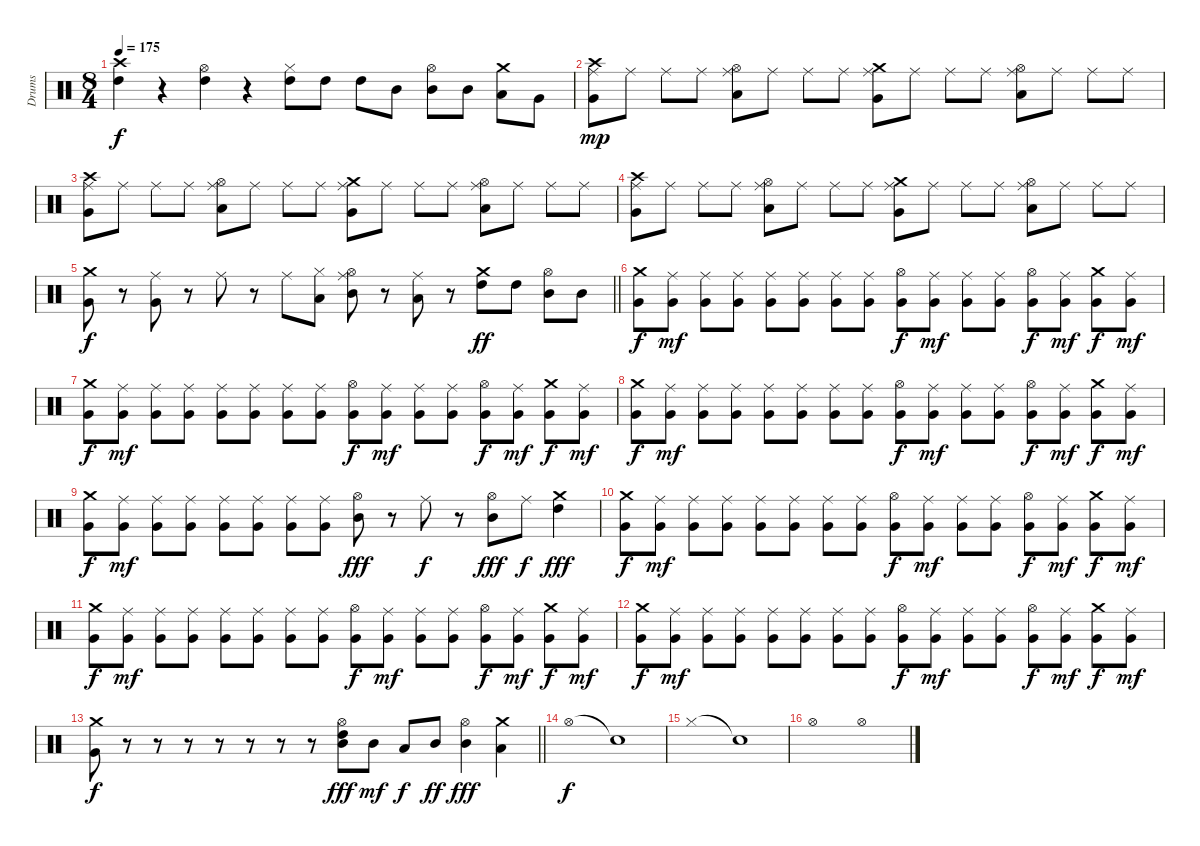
\track ("Drums" "Drums") {instrument percussion}
\staff {score}
\articulation defaults
\ts (8 4)
\tempo 175
\clef neutral
\ks c
("Crash high (hit)" "High Tom (hit)").4{dy f} r.4 ("Hi-Hat (open)" "High Tom (hit)").4 r.4 ("Hi-Hat (closed)" "High Tom (hit)").8 "High Tom (hit)".8 "High Tom (hit)".8 "Mid Tom (hit)".8 ("Hi-Hat (open)" "Mid Tom (hit)").8 "Mid Tom (hit)".8 ("Crash medium (hit)" "Low Tom (hit)").8 "Very Low Tom (hit)".8 |
("Crash high (hit)" "Ride (middle)" "Very Low Tom (hit)").8{dy mp} "Ride (middle)".8 "Ride (middle)".8 "Ride (middle)".8 ("Hi-Hat (open)" "Ride (middle)" "Low Tom (hit)").8 "Ride (middle)".8 "Ride (middle)".8 "Ride (middle)".8 ("Crash medium (hit)" "Ride (middle)" "Very Low Tom (hit)").8 "Ride (middle)".8 "Ride (middle)".8 "Ride (middle)".8 ("Hi-Hat (open)" "Ride (middle)" "Low Tom (hit)").8 "Ride (middle)".8 "Ride (middle)".8 "Ride (middle)".8 |
("Crash high (hit)" "Ride (middle)" "Very Low Tom (hit)").8 "Ride (middle)".8 "Ride (middle)".8 "Ride (middle)".8 ("Hi-Hat (open)" "Ride (middle)" "Low Tom (hit)").8 "Ride (middle)".8 "Ride (middle)".8 "Ride (middle)".8 ("Crash medium (hit)" "Ride (middle)" "Very Low Tom (hit)").8 "Ride (middle)".8 "Ride (middle)".8 "Ride (middle)".8 ("Hi-Hat (open)" "Ride (middle)" "Low Tom (hit)").8 "Ride (middle)".8 "Ride (middle)".8 "Ride (middle)".8 |
("Crash high (hit)" "Ride (middle)" "Very Low Tom (hit)").8 "Ride (middle)".8 "Ride (middle)".8 "Ride (middle)".8 ("Hi-Hat (open)" "Ride (middle)" "Low Tom (hit)").8 "Ride (middle)".8 "Ride (middle)".8 "Ride (middle)".8 ("Crash medium (hit)" "Ride (middle)" "Very Low Tom (hit)").8 "Ride (middle)".8 "Ride (middle)".8 "Ride (middle)".8 ("Hi-Hat (open)" "Ride (middle)" "Low Tom (hit)").8 "Ride (middle)".8 "Ride (middle)".8 "Ride (middle)".8 |
\barLineRight lightlight
("Crash medium (hit)" "Very Low Tom (hit)").8{dy f} r.8 ("Ride (middle)" "Very Low Tom (hit)").8 r.8 "Ride (middle)".8 r.8 "Ride (middle)".8 ("Hi-Hat (closed)" "Low Tom (hit)").8 ("Hi-Hat (open)" "Ride (middle)" "Mid Tom (hit)").8 r.8 ("Ride (middle)" "Low Tom (hit)").8 r.8 ("Crash medium (hit)" "High Tom (hit)").8{dy ff} "High Tom (hit)".8 ("Hi-Hat (open)" "Mid Tom (hit)").8 "Mid Tom (hit)".8 |
\section ("" "")
("Crash medium (hit)" "Very Low Tom (hit)").8{dy f} ("Ride (middle)" "Very Low Tom (hit)").8{dy mf} ("Ride (middle)" "Very Low Tom (hit)").8 ("Ride (middle)" "Very Low Tom (hit)").8 ("Ride (middle)" "Very Low Tom (hit)").8 ("Ride (middle)" "Very Low Tom (hit)").8 ("Ride (middle)" "Very Low Tom (hit)").8 ("Ride (middle)" "Very Low Tom (hit)").8 ("Hi-Hat (open)" "Very Low Tom (hit)").8{dy f} ("Ride (middle)" "Very Low Tom (hit)").8{dy mf} ("Ride (middle)" "Very Low Tom (hit)").8 ("Ride (middle)" "Very Low Tom (hit)").8 ("Hi-Hat (open)" "Very Low Tom (hit)").8{dy f} ("Ride (middle)" "Very Low Tom (hit)").8{dy mf} ("Crash medium (hit)" "Very Low Tom (hit)").8{dy f} ("Ride (middle)" "Very Low Tom (hit)").8{dy mf} |
("Crash medium (hit)" "Very Low Tom (hit)").8{dy f} ("Ride (middle)" "Very Low Tom (hit)").8{dy mf} ("Ride (middle)" "Very Low Tom (hit)").8 ("Ride (middle)" "Very Low Tom (hit)").8 ("Ride (middle)" "Very Low Tom (hit)").8 ("Ride (middle)" "Very Low Tom (hit)").8 ("Ride (middle)" "Very Low Tom (hit)").8 ("Ride (middle)" "Very Low Tom (hit)").8 ("Hi-Hat (open)" "Very Low Tom (hit)").8{dy f} ("Ride (middle)" "Very Low Tom (hit)").8{dy mf} ("Ride (middle)" "Very Low Tom (hit)").8 ("Ride (middle)" "Very Low Tom (hit)").8 ("Hi-Hat (open)" "Very Low Tom (hit)").8{dy f} ("Ride (middle)" "Very Low Tom (hit)").8{dy mf} ("Crash medium (hit)" "Very Low Tom (hit)").8{dy f} ("Ride (middle)" "Very Low Tom (hit)").8{dy mf} |
("Crash medium (hit)" "Very Low Tom (hit)").8{dy f} ("Ride (middle)" "Very Low Tom (hit)").8{dy mf} ("Ride (middle)" "Very Low Tom (hit)").8 ("Ride (middle)" "Very Low Tom (hit)").8 ("Ride (middle)" "Very Low Tom (hit)").8 ("Ride (middle)" "Very Low Tom (hit)").8 ("Ride (middle)" "Very Low Tom (hit)").8 ("Ride (middle)" "Very Low Tom (hit)").8 ("Hi-Hat (open)" "Very Low Tom (hit)").8{dy f} ("Ride (middle)" "Very Low Tom (hit)").8{dy mf} ("Ride (middle)" "Very Low Tom (hit)").8 ("Ride (middle)" "Very Low Tom (hit)").8 ("Hi-Hat (open)" "Very Low Tom (hit)").8{dy f} ("Ride (middle)" "Very Low Tom (hit)").8{dy mf} ("Crash medium (hit)" "Very Low Tom (hit)").8{dy f} ("Ride (middle)" "Very Low Tom (hit)").8{dy mf} |
("Crash medium (hit)" "Very Low Tom (hit)").8{dy f} ("Ride (middle)" "Very Low Tom (hit)").8{dy mf} ("Ride (middle)" "Very Low Tom (hit)").8 ("Ride (middle)" "Very Low Tom (hit)").8 ("Ride (middle)" "Very Low Tom (hit)").8 ("Ride (middle)" "Very Low Tom (hit)").8 ("Ride (middle)" "Very Low Tom (hit)").8 ("Ride (middle)" "Very Low Tom (hit)").8 ("Hi-Hat (open)" "Mid Tom (hit)").8{dy fff} r.8 "Ride (middle)".8{dy f} r.8 ("Hi-Hat (open)" "Mid Tom (hit)").8{dy fff} "Ride (middle)".8{dy f} ("Crash medium (hit)" "High Tom (hit)").4{dy fff} |
("Crash medium (hit)" "Very Low Tom (hit)").8{dy f} ("Ride (middle)" "Very Low Tom (hit)").8{dy mf} ("Ride (middle)" "Very Low Tom (hit)").8 ("Ride (middle)" "Very Low Tom (hit)").8 ("Ride (middle)" "Very Low Tom (hit)").8 ("Ride (middle)" "Very Low Tom (hit)").8 ("Ride (middle)" "Very Low Tom (hit)").8 ("Ride (middle)" "Very Low Tom (hit)").8 ("Hi-Hat (open)" "Very Low Tom (hit)").8{dy f} ("Ride (middle)" "Very Low Tom (hit)").8{dy mf} ("Ride (middle)" "Very Low Tom (hit)").8 ("Ride (middle)" "Very Low Tom (hit)").8 ("Hi-Hat (open)" "Very Low Tom (hit)").8{dy f} ("Ride (middle)" "Very Low Tom (hit)").8{dy mf} ("Crash medium (hit)" "Very Low Tom (hit)").8{dy f} ("Ride (middle)" "Very Low Tom (hit)").8{dy mf} |
("Crash medium (hit)" "Very Low Tom (hit)").8{dy f} ("Ride (middle)" "Very Low Tom (hit)").8{dy mf} ("Ride (middle)" "Very Low Tom (hit)").8 ("Ride (middle)" "Very Low Tom (hit)").8 ("Ride (middle)" "Very Low Tom (hit)").8 ("Ride (middle)" "Very Low Tom (hit)").8 ("Ride (middle)" "Very Low Tom (hit)").8 ("Ride (middle)" "Very Low Tom (hit)").8 ("Hi-Hat (open)" "Very Low Tom (hit)").8{dy f} ("Ride (middle)" "Very Low Tom (hit)").8{dy mf} ("Ride (middle)" "Very Low Tom (hit)").8 ("Ride (middle)" "Very Low Tom (hit)").8 ("Hi-Hat (open)" "Very Low Tom (hit)").8{dy f} ("Ride (middle)" "Very Low Tom (hit)").8{dy mf} ("Crash medium (hit)" "Very Low Tom (hit)").8{dy f} ("Ride (middle)" "Very Low Tom (hit)").8{dy mf} |
("Crash medium (hit)" "Very Low Tom (hit)").8{dy f} ("Ride (middle)" "Very Low Tom (hit)").8{dy mf} ("Ride (middle)" "Very Low Tom (hit)").8 ("Ride (middle)" "Very Low Tom (hit)").8 ("Ride (middle)" "Very Low Tom (hit)").8 ("Ride (middle)" "Very Low Tom (hit)").8 ("Ride (middle)" "Very Low Tom (hit)").8 ("Ride (middle)" "Very Low Tom (hit)").8 ("Hi-Hat (open)" "Very Low Tom (hit)").8{dy f} ("Ride (middle)" "Very Low Tom (hit)").8{dy mf} ("Ride (middle)" "Very Low Tom (hit)").8 ("Ride (middle)" "Very Low Tom (hit)").8 ("Hi-Hat (open)" "Very Low Tom (hit)").8{dy f} ("Ride (middle)" "Very Low Tom (hit)").8{dy mf} ("Crash medium (hit)" "Very Low Tom (hit)").8{dy f} ("Ride (middle)" "Very Low Tom (hit)").8{dy mf} |
\barLineRight lightlight
("Crash medium (hit)" "Very Low Tom (hit)").8{dy f} r.8 r.8 r.8 r.8 r.8 r.8 r.8 ("Hi-Hat (open)" "High Tom (hit)" "Mid Tom (hit)").8{dy fff} "Mid Tom (hit)".8{dy mf} "Low Tom (hit)".8{dy f} "Mid Tom (hit)".8{dy ff} ("Hi-Hat (open)" "Mid Tom (hit)").4{dy fff} ("Crash medium (hit)" "Low Tom (hit)").4 |
\section ("" "")
"Hi-Hat (open)".1{dy f} "Snare (hit)"{t}.1 |
"Hi-Hat (closed)".1 "Snare (hit)"{t}.1 |
"Hi-Hat (open)".1 "Hi-Hat (open)".1
